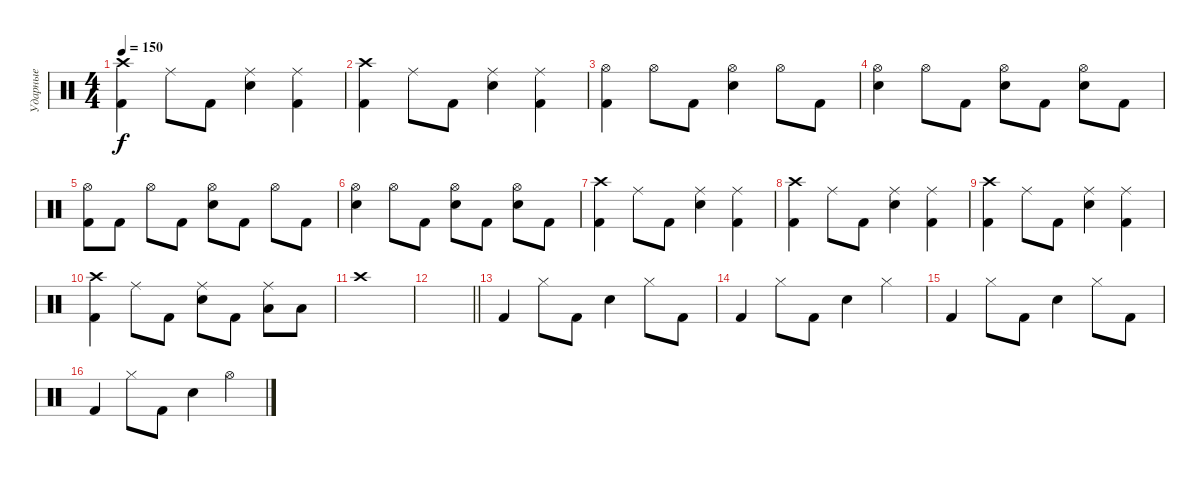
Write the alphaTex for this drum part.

\track ("Ударные" "Ударные") {instrument percussion}
\staff {score}
\articulation defaults
\ts (4 4)
\tempo 150
\clef neutral
\ks c
("Crash high (hit)" "Kick (hit) 2").4{dy f} "Ride (middle)".8 "Kick (hit) 2".8 ("Ride (middle)" "Snare (hit) 2").4 ("Ride (middle)" "Kick (hit) 2").4 |
("Crash high (hit)" "Kick (hit) 2").4 "Ride (middle)".8 "Kick (hit) 2".8 ("Ride (middle)" "Snare (hit) 2").4 ("Ride (middle)" "Kick (hit) 2").4 |
("Hi-Hat (open)" "Kick (hit) 2").4 "Hi-Hat (open)".8 "Kick (hit) 2".8 ("Hi-Hat (open)" "Snare (hit) 2").4 "Hi-Hat (open)".8 "Kick (hit) 2".8 |
("Hi-Hat (open)" "Snare (hit) 2").4 "Hi-Hat (open)".8 "Kick (hit) 2".8 ("Hi-Hat (open)" "Snare (hit) 2").8 "Kick (hit) 2".8 ("Hi-Hat (open)" "Snare (hit) 2").8 "Kick (hit) 2".8 |
("Hi-Hat (open)" "Kick (hit) 2").8 "Kick (hit) 2".8 "Hi-Hat (open)".8 "Kick (hit) 2".8 ("Hi-Hat (open)" "Snare (hit) 2").8 "Kick (hit) 2".8 "Hi-Hat (open)".8 "Kick (hit) 2".8 |
("Hi-Hat (open)" "Snare (hit) 2").4 "Hi-Hat (open)".8 "Kick (hit) 2".8 ("Hi-Hat (open)" "Snare (hit) 2").8 "Kick (hit) 2".8 ("Hi-Hat (open)" "Snare (hit) 2").8 "Kick (hit) 2".8 |
("Crash high (hit)" "Kick (hit) 2").4 "Ride (middle)".8 "Kick (hit) 2".8 ("Ride (middle)" "Snare (hit) 2").4 ("Ride (middle)" "Kick (hit) 2").4 |
("Crash high (hit)" "Kick (hit) 2").4 "Ride (middle)".8 "Kick (hit) 2".8 ("Ride (middle)" "Snare (hit) 2").4 ("Ride (middle)" "Kick (hit) 2").4 |
("Crash high (hit)" "Kick (hit) 2").4 "Ride (middle)".8 "Kick (hit) 2".8 ("Ride (middle)" "Snare (hit) 2").4 ("Ride (middle)" "Kick (hit) 2").4 |
("Crash high (hit)" "Kick (hit) 2").4 "Ride (middle)".8 "Kick (hit) 2".8 ("Ride (middle)" "Snare (hit) 2").8 "Kick (hit) 2".8 ("Ride (middle)" "Low Tom (hit)").8 "Low Tom (hit)".8 |
"Crash high (hit)".1 |
\barLineRight lightlight
|
"Kick (hit) 2".4 "Hi-Hat (closed)".8 "Kick (hit) 2".8 "Snare (hit) 2".4 "Hi-Hat (closed)".8 "Kick (hit) 2".8 |
"Kick (hit) 2".4 "Hi-Hat (closed)".8 "Kick (hit) 2".8 "Snare (hit) 2".4 "Hi-Hat (closed)".4 |
"Kick (hit) 2".4 "Hi-Hat (closed)".8 "Kick (hit) 2".8 "Snare (hit) 2".4 "Hi-Hat (closed)".8 "Kick (hit) 2".8 |
"Kick (hit) 2".4 "Hi-Hat (closed)".8 "Kick (hit) 2".8 "Snare (hit) 2".4 "Hi-Hat (open)".4
